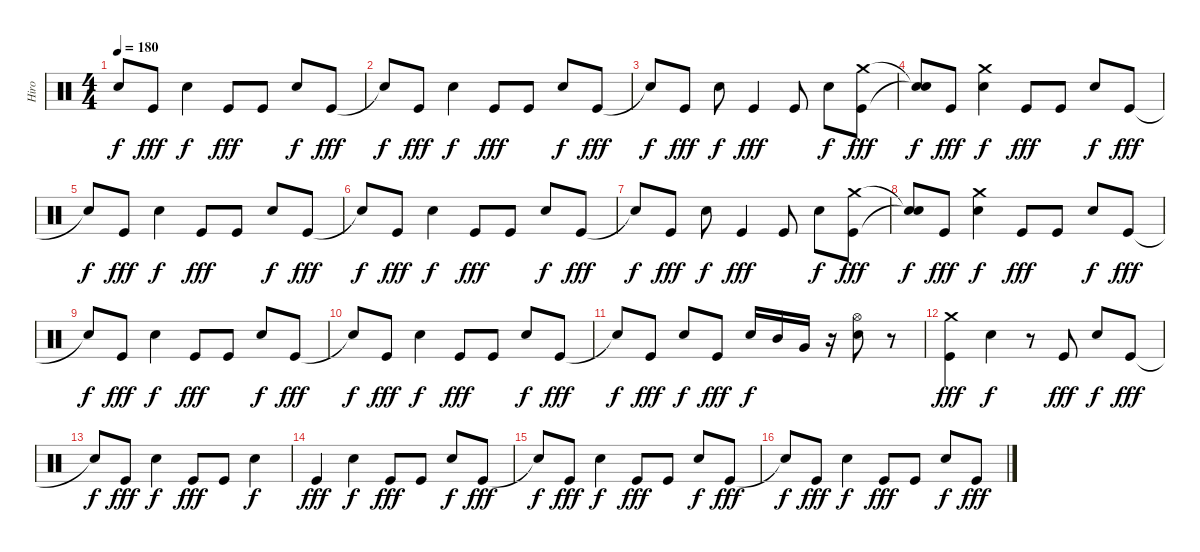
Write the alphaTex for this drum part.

\track ("Hiro" "Hiro") {instrument percussion}
\staff {score}
\articulation defaults
\ts (4 4)
\tempo 180
\clef neutral
\ks c "Snare (hit)"{t}.8{dy f} "Kick (hit)".8{dy fff} "Electric Snare (hit)".4{dy f} "Kick (hit)".8{dy fff} "Kick (hit)".8 "Electric Snare (hit)".8{dy f} "Kick (hit)".8{dy fff}
|
"Snare (hit)"{t}.8{dy f} "Kick (hit)".8{dy fff} "Electric Snare (hit)".4{dy f} "Kick (hit)".8{dy fff} "Kick (hit)".8 "Electric Snare (hit)".8{dy f} "Kick (hit)".8{dy fff} |
"Snare (hit)"{t}.8{dy f} "Kick (hit)".8{dy fff} "Electric Snare (hit)".8{dy f} "Kick (hit)".4{dy fff} "Kick (hit)".8 "Electric Snare (hit)".8{dy f} ("Crash medium (hit)" "Kick (hit)").8{dy fff} |
("Snare (hit)"{t} "Snare (hit)"{t}).8{dy f} "Kick (hit)".8{dy fff} ("Electric Snare (hit)" "Crash medium (hit)").4{dy f} "Kick (hit)".8{dy fff} "Kick (hit)".8 "Electric Snare (hit)".8{dy f} "Kick (hit)".8{dy fff} |
"Snare (hit)"{t}.8{dy f} "Kick (hit)".8{dy fff} "Electric Snare (hit)".4{dy f} "Kick (hit)".8{dy fff} "Kick (hit)".8 "Electric Snare (hit)".8{dy f} "Kick (hit)".8{dy fff} |
"Snare (hit)"{t}.8{dy f} "Kick (hit)".8{dy fff} "Electric Snare (hit)".4{dy f} "Kick (hit)".8{dy fff} "Kick (hit)".8 "Electric Snare (hit)".8{dy f} "Kick (hit)".8{dy fff} |
"Snare (hit)"{t}.8{dy f} "Kick (hit)".8{dy fff} "Electric Snare (hit)".8{dy f} "Kick (hit)".4{dy fff} "Kick (hit)".8 "Electric Snare (hit)".8{dy f} ("Crash medium (hit)" "Kick (hit)").8{dy fff} |
("Snare (hit)"{t} "Snare (hit)"{t}).8{dy f} "Kick (hit)".8{dy fff} ("Electric Snare (hit)" "Crash medium (hit)").4{dy f} "Kick (hit)".8{dy fff} "Kick (hit)".8 "Electric Snare (hit)".8{dy f} "Kick (hit)".8{dy fff} |
"Snare (hit)"{t}.8{dy f} "Kick (hit)".8{dy fff} "Electric Snare (hit)".4{dy f} "Kick (hit)".8{dy fff} "Kick (hit)".8 "Electric Snare (hit)".8{dy f} "Kick (hit)".8{dy fff} |
"Snare (hit)"{t}.8{dy f} "Kick (hit)".8{dy fff} "Electric Snare (hit)".4{dy f} "Kick (hit)".8{dy fff} "Kick (hit)".8 "Electric Snare (hit)".8{dy f} "Kick (hit)".8{dy fff} |
"Snare (hit)"{t}.8{dy f} "Kick (hit)".8{dy fff} "Electric Snare (hit)".8{dy f} "Kick (hit)".8{dy fff} "Electric Snare (hit)".16{dy f} "Mid Tom (hit)".16 "Very Low Tom (hit)".16 r.16 ("Electric Snare (hit)" "Hi-Hat (open)").8 r.8 |
("Crash medium (hit)" "Kick (hit)").4{dy fff} "Electric Snare (hit)".4{dy f} r.8 "Kick (hit)".8{dy fff} "Electric Snare (hit)".8{dy f} "Kick (hit)".8{dy fff} |
"Snare (hit)"{t}.8{dy f} "Kick (hit)".8{dy fff} "Electric Snare (hit)".4{dy f} "Kick (hit)".8{dy fff} "Kick (hit)".8 "Electric Snare (hit)".4{dy f} |
"Kick (hit)".4{dy fff} "Electric Snare (hit)".4{dy f} "Kick (hit)".8{dy fff} "Kick (hit)".8 "Electric Snare (hit)".8{dy f} "Kick (hit)".8{dy fff} |
"Snare (hit)"{t}.8{dy f} "Kick (hit)".8{dy fff} "Electric Snare (hit)".4{dy f} "Kick (hit)".8{dy fff} "Kick (hit)".8 "Electric Snare (hit)".8{dy f} "Kick (hit)".8{dy fff} |
"Snare (hit)"{t}.8{dy f} "Kick (hit)".8{dy fff} "Electric Snare (hit)".4{dy f} "Kick (hit)".8{dy fff} "Kick (hit)".8 "Electric Snare (hit)".8{dy f} "Kick (hit)".8{dy fff}
